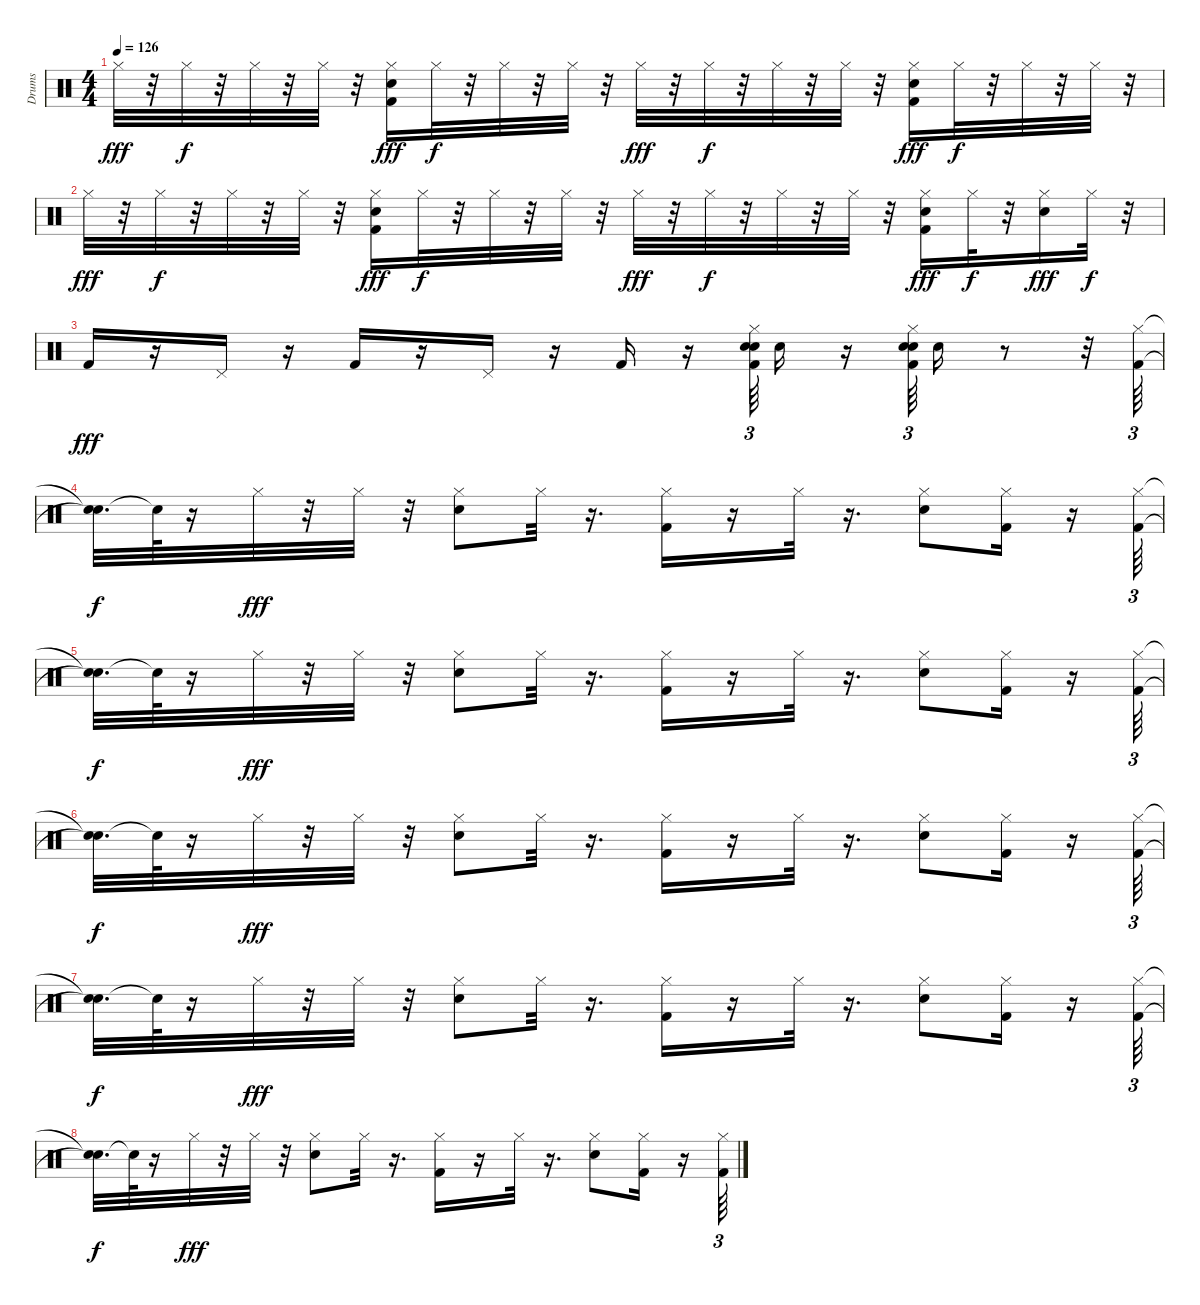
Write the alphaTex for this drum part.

\track ("Drums" "Drums") {instrument percussion}
\staff {score}
\articulation defaults
\ts (4 4)
\tempo 126
\clef neutral
\ks c "Hi-Hat (closed)".32{dy fff}
r.32 "Hi-Hat (closed)".32{dy f} r.32 "Hi-Hat (closed)".32 r.32 "Hi-Hat (closed)".32 r.32 ("Kick (hit) 2" "Hi-Hat (closed)" "Hand Clap (hit)").16{dy fff} "Hi-Hat (closed)".32{dy f} r.32 "Hi-Hat (closed)".32 r.32 "Hi-Hat (closed)".32 r.32 "Hi-Hat (closed)".32{dy fff} r.32 "Hi-Hat (closed)".32{dy f} r.32 "Hi-Hat (closed)".32 r.32 "Hi-Hat (closed)".32 r.32 ("Kick (hit) 2" "Hand Clap (hit)" "Hi-Hat (closed)").16{dy fff} "Hi-Hat (closed)".32{dy f} r.32 "Hi-Hat (closed)".32 r.32 "Hi-Hat (closed)".32 r.32 |
"Hi-Hat (closed)".32{dy fff} r.32 "Hi-Hat (closed)".32{dy f} r.32 "Hi-Hat (closed)".32 r.32 "Hi-Hat (closed)".32 r.32 ("Kick (hit) 2" "Hi-Hat (closed)" "Hand Clap (hit)").16{dy fff} "Hi-Hat (closed)".32{dy f} r.32 "Hi-Hat (closed)".32 r.32 "Hi-Hat (closed)".32 r.32 "Hi-Hat (closed)".32{dy fff} r.32 "Hi-Hat (closed)".32{dy f} r.32 "Hi-Hat (closed)".32 r.32 "Hi-Hat (closed)".32 r.32 ("Kick (hit) 2" "Hand Clap (hit)" "Hi-Hat (closed)").16{dy fff} "Hi-Hat (closed)".32{dy f} r.32 ("Hand Clap (hit)" "Hi-Hat (closed)").16{dy fff} "Hi-Hat (closed)".32{dy f} r.32 |
"Kick (hit) 2".16{dy fff} r.16 "Pedal Hi-Hat (hit)".16 r.16 "Kick (hit) 2".16 r.16 "Pedal Hi-Hat (hit)".16 r.16 "Kick (hit) 2".16 r.16 ("Hand Clap (hit)" "Snare (hit) 2" "Hi-Hat (closed)" "Kick (hit) 2").64{tu (3 2)} "Snare (hit) 2".16 r.16 ("Kick (hit) 2" "Snare (hit) 2" "Hi-Hat (closed)" "Hand Clap (hit)").64{tu (3 2)} "Snare (hit) 2".16 r.8 r.32 ("Hi-Hat (closed)" "Kick (hit) 2").64{tu (3 2)} |
("Snare (hit)"{t} "Snare (hit)"{t}).32{d dy f} "Snare (hit)"{t}.64 r.16 "Hi-Hat (closed)".32{dy fff} r.32 "Hi-Hat (closed)".32 r.32 ("Snare (hit) 2" "Hi-Hat (closed)").8 "Hi-Hat (closed)".32 r.16{d} ("Hi-Hat (closed)" "Kick (hit) 2").16 r.16 "Hi-Hat (closed)".32 r.16{d} ("Hi-Hat (closed)" "Snare (hit) 2").8 ("Kick (hit) 2" "Hi-Hat (closed)").16 r.16 ("Kick (hit) 2" "Hi-Hat (closed)").64{tu (3 2)} |
("Snare (hit)"{t} "Snare (hit)"{t}).32{d dy f} "Snare (hit)"{t}.64 r.16 "Hi-Hat (closed)".32{dy fff} r.32 "Hi-Hat (closed)".32 r.32 ("Snare (hit) 2" "Hi-Hat (closed)").8 "Hi-Hat (closed)".32 r.16{d} ("Hi-Hat (closed)" "Kick (hit) 2").16 r.16 "Hi-Hat (closed)".32 r.16{d} ("Snare (hit) 2" "Hi-Hat (closed)").8 ("Hi-Hat (closed)" "Kick (hit) 2").16 r.16 ("Kick (hit) 2" "Hi-Hat (closed)").64{tu (3 2)} |
("Snare (hit)"{t} "Snare (hit)"{t}).32{d dy f} "Snare (hit)"{t}.64 r.16 "Hi-Hat (closed)".32{dy fff} r.32 "Hi-Hat (closed)".32 r.32 ("Hi-Hat (closed)" "Snare (hit) 2").8 "Hi-Hat (closed)".32 r.16{d} ("Kick (hit) 2" "Hi-Hat (closed)").16 r.16 "Hi-Hat (closed)".32 r.16{d} ("Snare (hit) 2" "Hi-Hat (closed)").8 ("Hi-Hat (closed)" "Kick (hit) 2").16 r.16 ("Hi-Hat (closed)" "Kick (hit) 2").64{tu (3 2)} |
("Snare (hit)"{t} "Snare (hit)"{t}).32{d dy f} "Snare (hit)"{t}.64 r.16 "Hi-Hat (closed)".32{dy fff} r.32 "Hi-Hat (closed)".32 r.32 ("Hi-Hat (closed)" "Snare (hit) 2").8 "Hi-Hat (closed)".32 r.16{d} ("Kick (hit) 2" "Hi-Hat (closed)").16 r.16 "Hi-Hat (closed)".32 r.16{d} ("Snare (hit) 2" "Hi-Hat (closed)").8 ("Kick (hit) 2" "Hi-Hat (closed)").16 r.16 ("Kick (hit) 2" "Hi-Hat (closed)").64{tu (3 2)} |
("Snare (hit)"{t} "Snare (hit)"{t}).32{d dy f} "Snare (hit)"{t}.64 r.16 "Hi-Hat (closed)".32{dy fff} r.32 "Hi-Hat (closed)".32 r.32 ("Snare (hit) 2" "Hi-Hat (closed)").8 "Hi-Hat (closed)".32 r.16{d} ("Kick (hit) 2" "Hi-Hat (closed)").16 r.16 "Hi-Hat (closed)".32 r.16{d} ("Snare (hit) 2" "Hi-Hat (closed)").8 ("Kick (hit) 2" "Hi-Hat (closed)").16 r.16 ("Hi-Hat (closed)" "Kick (hit) 2").64{tu (3 2)}
